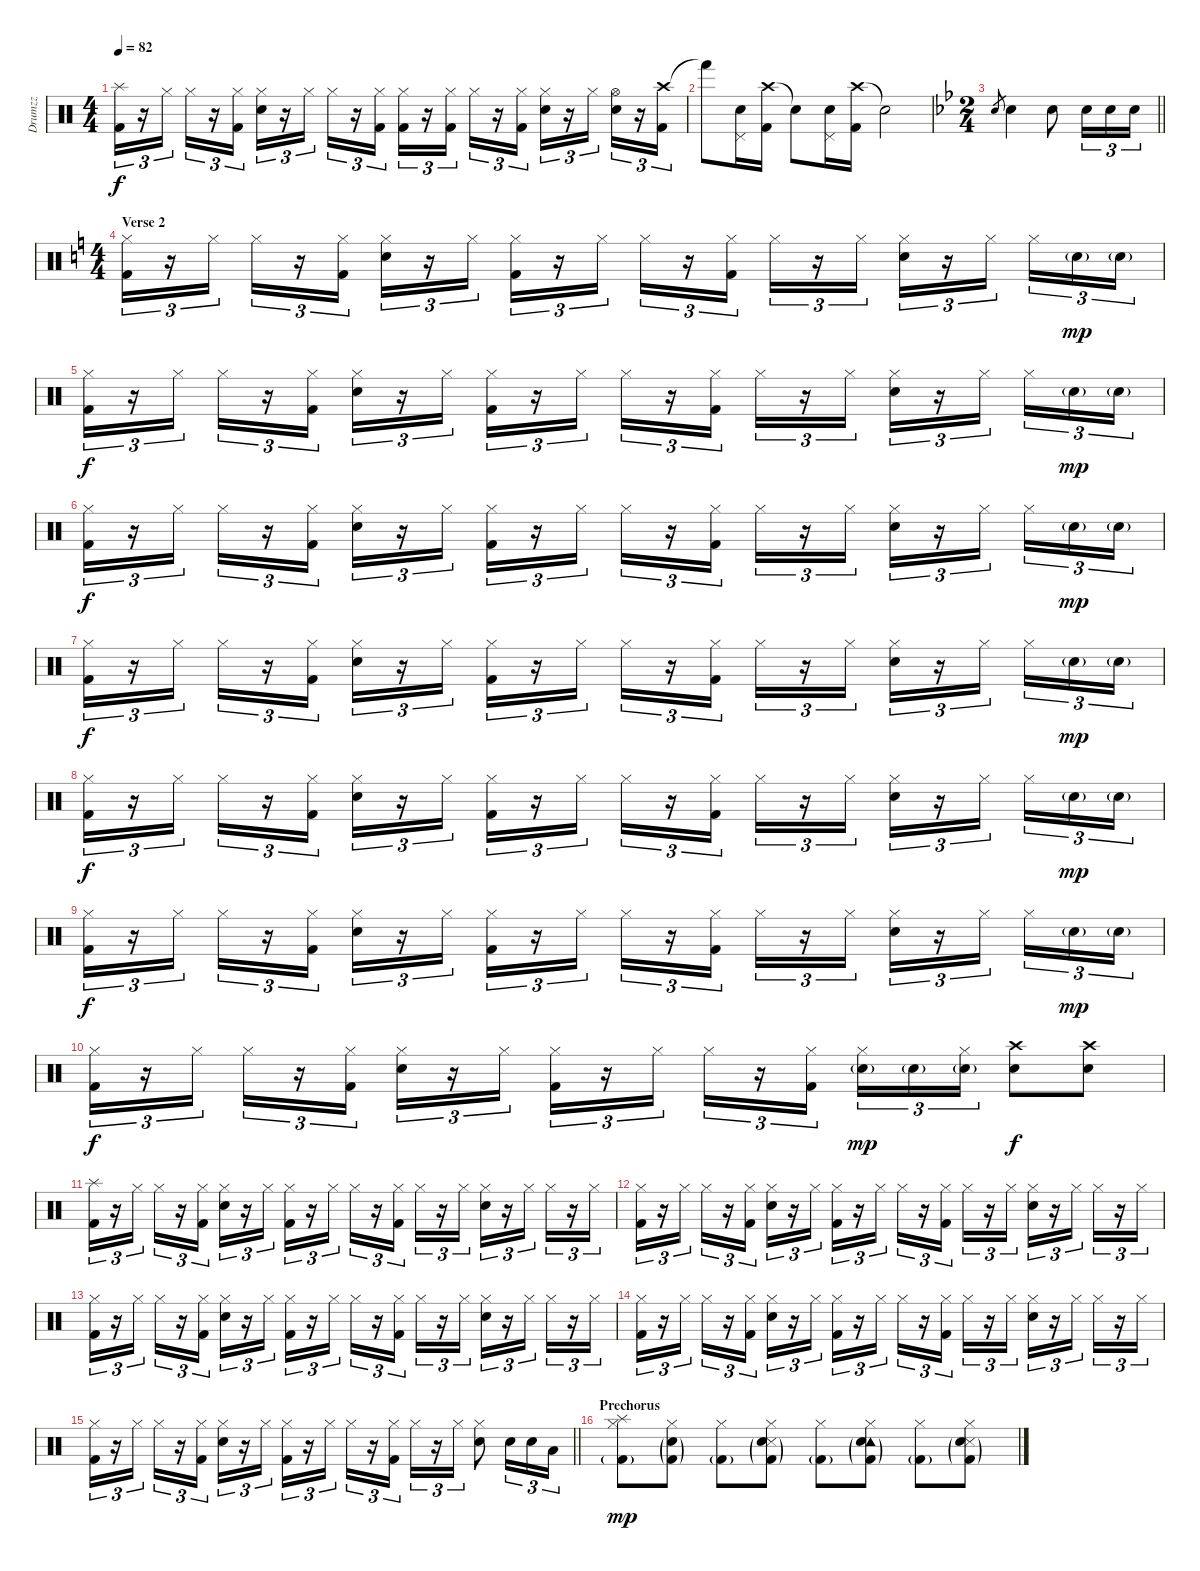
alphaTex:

\track ("Drumzz" "Drumzz") {instrument percussion}
\staff {score}
\articulation defaults
\ts (4 4)
\tempo 82
\clef neutral
\ks c
("Splash (hit)" "Kick (hit) 2").16{tu (3 2) dy f} r.16{tu (3 2)} "Hi-Hat (closed)".16{tu (3 2)} "Hi-Hat (closed)".16{tu (3 2)} r.16{tu (3 2)} ("Hi-Hat (closed)" "Kick (hit) 2").16{tu (3 2)} ("Hi-Hat (closed)" "Snare (hit) 2").16{tu (3 2)} r.16{tu (3 2)} "Hi-Hat (closed)".16{tu (3 2)} "Hi-Hat (closed)".16{tu (3 2)} r.16{tu (3 2)} ("Hi-Hat (closed)" "Kick (hit) 2").16{tu (3 2)} ("Hi-Hat (closed)" "Kick (hit) 2").16{tu (3 2)} r.16{tu (3 2)} ("Hi-Hat (closed)" "Kick (hit) 2").16{tu (3 2)} "Hi-Hat (closed)".16{tu (3 2)} r.16{tu (3 2)} ("Hi-Hat (closed)" "Kick (hit) 2").16{tu (3 2)} ("Hi-Hat (closed)" "Snare (hit) 2").16{tu (3 2)} r.16{tu (3 2)} "Hi-Hat (closed)".16{tu (3 2)} ("Hi-Hat (open)" "Snare (hit) 2").16{tu (3 2)} r.16{tu (3 2)} ("Crash high (hit)" "Kick (hit) 2").16{tu (3 2)} |
"Hand (hit)"{t}.8 ("Pedal Hi-Hat (hit)" "Snare (hit) 2").16 ("Crash high (hit)" "Kick (hit) 2").16 "Snare (hit)"{t}.8 ("Pedal Hi-Hat (hit)" "Snare (hit) 2").16 ("Crash high (hit)" "Kick (hit) 2").16 "Snare (hit)"{t}.2 |
\ts (2 4)
\barLineRight lightlight
\ks bb "Snare (hit) 2".8{gr} "Snare (hit) 2".4 "Snare (hit) 2".8 "Snare (hit) 2".16{tu (3 2)} "Snare (hit) 2".16{tu (3 2)} "Snare (hit) 2".16{tu (3 2)}
|
\ts (4 4)
\section ("" "Verse 2")
\ks c
("Hi-Hat (closed)" "Kick (hit) 2").16{tu (3 2)} r.16{tu (3 2)} "Hi-Hat (closed)".16{tu (3 2)} "Hi-Hat (closed)".16{tu (3 2)} r.16{tu (3 2)} ("Hi-Hat (closed)" "Kick (hit) 2").16{tu (3 2)} ("Hi-Hat (closed)" "Snare (hit) 2").16{tu (3 2)} r.16{tu (3 2)} "Hi-Hat (closed)".16{tu (3 2)} ("Hi-Hat (closed)" "Kick (hit) 2").16{tu (3 2)} r.16{tu (3 2)} "Hi-Hat (closed)".16{tu (3 2)} "Hi-Hat (closed)".16{tu (3 2)} r.16{tu (3 2)} ("Hi-Hat (closed)" "Kick (hit) 2").16{tu (3 2)} "Hi-Hat (closed)".16{tu (3 2)} r.16{tu (3 2)} "Hi-Hat (closed)".16{tu (3 2)} ("Hi-Hat (closed)" "Snare (hit) 2").16{tu (3 2)} r.16{tu (3 2)} "Hi-Hat (closed)".16{tu (3 2) beam splitsecondary} "Hi-Hat (closed)".16{tu (3 2)} "Snare (hit) 2"{g}.16{tu (3 2) dy mp} "Snare (hit) 2"{g}.16{tu (3 2)} |
("Hi-Hat (closed)" "Kick (hit) 2").16{tu (3 2) dy f} r.16{tu (3 2)} "Hi-Hat (closed)".16{tu (3 2)} "Hi-Hat (closed)".16{tu (3 2)} r.16{tu (3 2)} ("Hi-Hat (closed)" "Kick (hit) 2").16{tu (3 2)} ("Hi-Hat (closed)" "Snare (hit) 2").16{tu (3 2)} r.16{tu (3 2)} "Hi-Hat (closed)".16{tu (3 2)} ("Hi-Hat (closed)" "Kick (hit) 2").16{tu (3 2)} r.16{tu (3 2)} "Hi-Hat (closed)".16{tu (3 2)} "Hi-Hat (closed)".16{tu (3 2)} r.16{tu (3 2)} ("Hi-Hat (closed)" "Kick (hit) 2").16{tu (3 2)} "Hi-Hat (closed)".16{tu (3 2)} r.16{tu (3 2)} "Hi-Hat (closed)".16{tu (3 2)} ("Hi-Hat (closed)" "Snare (hit) 2").16{tu (3 2)} r.16{tu (3 2)} "Hi-Hat (closed)".16{tu (3 2) beam splitsecondary} "Hi-Hat (closed)".16{tu (3 2)} "Snare (hit) 2"{g}.16{tu (3 2) dy mp} "Snare (hit) 2"{g}.16{tu (3 2)} |
("Hi-Hat (closed)" "Kick (hit) 2").16{tu (3 2) dy f} r.16{tu (3 2)} "Hi-Hat (closed)".16{tu (3 2)} "Hi-Hat (closed)".16{tu (3 2)} r.16{tu (3 2)} ("Hi-Hat (closed)" "Kick (hit) 2").16{tu (3 2)} ("Hi-Hat (closed)" "Snare (hit) 2").16{tu (3 2)} r.16{tu (3 2)} "Hi-Hat (closed)".16{tu (3 2)} ("Hi-Hat (closed)" "Kick (hit) 2").16{tu (3 2)} r.16{tu (3 2)} "Hi-Hat (closed)".16{tu (3 2)} "Hi-Hat (closed)".16{tu (3 2)} r.16{tu (3 2)} ("Hi-Hat (closed)" "Kick (hit) 2").16{tu (3 2)} "Hi-Hat (closed)".16{tu (3 2)} r.16{tu (3 2)} "Hi-Hat (closed)".16{tu (3 2)} ("Hi-Hat (closed)" "Snare (hit) 2").16{tu (3 2)} r.16{tu (3 2)} "Hi-Hat (closed)".16{tu (3 2) beam splitsecondary} "Hi-Hat (closed)".16{tu (3 2)} "Snare (hit) 2"{g}.16{tu (3 2) dy mp} "Snare (hit) 2"{g}.16{tu (3 2)} |
("Hi-Hat (closed)" "Kick (hit) 2").16{tu (3 2) dy f} r.16{tu (3 2)} "Hi-Hat (closed)".16{tu (3 2)} "Hi-Hat (closed)".16{tu (3 2)} r.16{tu (3 2)} ("Hi-Hat (closed)" "Kick (hit) 2").16{tu (3 2)} ("Hi-Hat (closed)" "Snare (hit) 2").16{tu (3 2)} r.16{tu (3 2)} "Hi-Hat (closed)".16{tu (3 2)} ("Hi-Hat (closed)" "Kick (hit) 2").16{tu (3 2)} r.16{tu (3 2)} "Hi-Hat (closed)".16{tu (3 2)} "Hi-Hat (closed)".16{tu (3 2)} r.16{tu (3 2)} ("Hi-Hat (closed)" "Kick (hit) 2").16{tu (3 2)} "Hi-Hat (closed)".16{tu (3 2)} r.16{tu (3 2)} "Hi-Hat (closed)".16{tu (3 2)} ("Hi-Hat (closed)" "Snare (hit) 2").16{tu (3 2)} r.16{tu (3 2)} "Hi-Hat (closed)".16{tu (3 2) beam splitsecondary} "Hi-Hat (closed)".16{tu (3 2)} "Snare (hit) 2"{g}.16{tu (3 2) dy mp} "Snare (hit) 2"{g}.16{tu (3 2)} |
("Hi-Hat (closed)" "Kick (hit) 2").16{tu (3 2) dy f} r.16{tu (3 2)} "Hi-Hat (closed)".16{tu (3 2)} "Hi-Hat (closed)".16{tu (3 2)} r.16{tu (3 2)} ("Hi-Hat (closed)" "Kick (hit) 2").16{tu (3 2)} ("Hi-Hat (closed)" "Snare (hit) 2").16{tu (3 2)} r.16{tu (3 2)} "Hi-Hat (closed)".16{tu (3 2)} ("Hi-Hat (closed)" "Kick (hit) 2").16{tu (3 2)} r.16{tu (3 2)} "Hi-Hat (closed)".16{tu (3 2)} "Hi-Hat (closed)".16{tu (3 2)} r.16{tu (3 2)} ("Hi-Hat (closed)" "Kick (hit) 2").16{tu (3 2)} "Hi-Hat (closed)".16{tu (3 2)} r.16{tu (3 2)} "Hi-Hat (closed)".16{tu (3 2)} ("Hi-Hat (closed)" "Snare (hit) 2").16{tu (3 2)} r.16{tu (3 2)} "Hi-Hat (closed)".16{tu (3 2) beam splitsecondary} "Hi-Hat (closed)".16{tu (3 2)} "Snare (hit) 2"{g}.16{tu (3 2) dy mp} "Snare (hit) 2"{g}.16{tu (3 2)} |
("Hi-Hat (closed)" "Kick (hit) 2").16{tu (3 2) dy f} r.16{tu (3 2)} "Hi-Hat (closed)".16{tu (3 2)} "Hi-Hat (closed)".16{tu (3 2)} r.16{tu (3 2)} ("Hi-Hat (closed)" "Kick (hit) 2").16{tu (3 2)} ("Hi-Hat (closed)" "Snare (hit) 2").16{tu (3 2)} r.16{tu (3 2)} "Hi-Hat (closed)".16{tu (3 2)} ("Hi-Hat (closed)" "Kick (hit) 2").16{tu (3 2)} r.16{tu (3 2)} "Hi-Hat (closed)".16{tu (3 2)} "Hi-Hat (closed)".16{tu (3 2)} r.16{tu (3 2)} ("Hi-Hat (closed)" "Kick (hit) 2").16{tu (3 2)} "Hi-Hat (closed)".16{tu (3 2)} r.16{tu (3 2)} "Hi-Hat (closed)".16{tu (3 2)} ("Hi-Hat (closed)" "Snare (hit) 2").16{tu (3 2)} r.16{tu (3 2)} "Hi-Hat (closed)".16{tu (3 2) beam splitsecondary} "Hi-Hat (closed)".16{tu (3 2)} "Snare (hit) 2"{g}.16{tu (3 2) dy mp} "Snare (hit) 2"{g}.16{tu (3 2)} |
("Hi-Hat (closed)" "Kick (hit) 2").16{tu (3 2) dy f} r.16{tu (3 2)} "Hi-Hat (closed)".16{tu (3 2)} "Hi-Hat (closed)".16{tu (3 2)} r.16{tu (3 2)} ("Hi-Hat (closed)" "Kick (hit) 2").16{tu (3 2)} ("Hi-Hat (closed)" "Snare (hit) 2").16{tu (3 2)} r.16{tu (3 2)} "Hi-Hat (closed)".16{tu (3 2)} ("Hi-Hat (closed)" "Kick (hit) 2").16{tu (3 2)} r.16{tu (3 2)} "Hi-Hat (closed)".16{tu (3 2)} "Hi-Hat (closed)".16{tu (3 2)} r.16{tu (3 2)} ("Hi-Hat (closed)" "Kick (hit) 2").16{tu (3 2) beam splitsecondary} ("Hi-Hat (closed)" "Snare (hit) 2"{g}).16{tu (3 2) dy mp} "Snare (hit) 2"{g}.16{tu (3 2)} ("Hi-Hat (closed)" "Snare (hit) 2"{g}).16{tu (3 2)} ("Crash high (hit)" "Snare (hit) 2").8{dy f} ("Crash high (hit)" "Snare (hit) 2").8 |
("Splash (hit)" "Kick (hit) 2").16{tu (3 2)} r.16{tu (3 2)} "Hi-Hat (closed)".16{tu (3 2)} "Hi-Hat (closed)".16{tu (3 2)} r.16{tu (3 2)} ("Hi-Hat (closed)" "Kick (hit) 2").16{tu (3 2)} ("Hi-Hat (closed)" "Snare (hit) 2").16{tu (3 2)} r.16{tu (3 2)} "Hi-Hat (closed)".16{tu (3 2)} ("Hi-Hat (closed)" "Kick (hit) 2").16{tu (3 2)} r.16{tu (3 2)} "Hi-Hat (closed)".16{tu (3 2)} "Hi-Hat (closed)".16{tu (3 2)} r.16{tu (3 2)} ("Hi-Hat (closed)" "Kick (hit) 2").16{tu (3 2)} "Hi-Hat (closed)".16{tu (3 2)} r.16{tu (3 2)} "Hi-Hat (closed)".16{tu (3 2)} ("Hi-Hat (closed)" "Snare (hit) 2").16{tu (3 2)} r.16{tu (3 2)} "Hi-Hat (closed)".16{tu (3 2)} "Hi-Hat (closed)".16{tu (3 2)} r.16{tu (3 2)} "Hi-Hat (closed)".16{tu (3 2)} |
("Hi-Hat (closed)" "Kick (hit) 2").16{tu (3 2)} r.16{tu (3 2)} "Hi-Hat (closed)".16{tu (3 2)} "Hi-Hat (closed)".16{tu (3 2)} r.16{tu (3 2)} ("Hi-Hat (closed)" "Kick (hit) 2").16{tu (3 2)} ("Hi-Hat (closed)" "Snare (hit) 2").16{tu (3 2)} r.16{tu (3 2)} "Hi-Hat (closed)".16{tu (3 2)} ("Hi-Hat (closed)" "Kick (hit) 2").16{tu (3 2)} r.16{tu (3 2)} "Hi-Hat (closed)".16{tu (3 2)} "Hi-Hat (closed)".16{tu (3 2)} r.16{tu (3 2)} ("Hi-Hat (closed)" "Kick (hit) 2").16{tu (3 2)} "Hi-Hat (closed)".16{tu (3 2)} r.16{tu (3 2)} "Hi-Hat (closed)".16{tu (3 2)} ("Hi-Hat (closed)" "Snare (hit) 2").16{tu (3 2)} r.16{tu (3 2)} "Hi-Hat (closed)".16{tu (3 2)} "Hi-Hat (closed)".16{tu (3 2)} r.16{tu (3 2)} "Hi-Hat (closed)".16{tu (3 2)} |
("Hi-Hat (closed)" "Kick (hit) 2").16{tu (3 2)} r.16{tu (3 2)} "Hi-Hat (closed)".16{tu (3 2)} "Hi-Hat (closed)".16{tu (3 2)} r.16{tu (3 2)} ("Hi-Hat (closed)" "Kick (hit) 2").16{tu (3 2)} ("Hi-Hat (closed)" "Snare (hit) 2").16{tu (3 2)} r.16{tu (3 2)} "Hi-Hat (closed)".16{tu (3 2)} ("Hi-Hat (closed)" "Kick (hit) 2").16{tu (3 2)} r.16{tu (3 2)} "Hi-Hat (closed)".16{tu (3 2)} "Hi-Hat (closed)".16{tu (3 2)} r.16{tu (3 2)} ("Hi-Hat (closed)" "Kick (hit) 2").16{tu (3 2)} "Hi-Hat (closed)".16{tu (3 2)} r.16{tu (3 2)} "Hi-Hat (closed)".16{tu (3 2)} ("Hi-Hat (closed)" "Snare (hit) 2").16{tu (3 2)} r.16{tu (3 2)} "Hi-Hat (closed)".16{tu (3 2)} "Hi-Hat (closed)".16{tu (3 2)} r.16{tu (3 2)} "Hi-Hat (closed)".16{tu (3 2)} |
("Hi-Hat (closed)" "Kick (hit) 2").16{tu (3 2)} r.16{tu (3 2)} "Hi-Hat (closed)".16{tu (3 2)} "Hi-Hat (closed)".16{tu (3 2)} r.16{tu (3 2)} ("Hi-Hat (closed)" "Kick (hit) 2").16{tu (3 2)} ("Hi-Hat (closed)" "Snare (hit) 2").16{tu (3 2)} r.16{tu (3 2)} "Hi-Hat (closed)".16{tu (3 2)} ("Hi-Hat (closed)" "Kick (hit) 2").16{tu (3 2)} r.16{tu (3 2)} "Hi-Hat (closed)".16{tu (3 2)} "Hi-Hat (closed)".16{tu (3 2)} r.16{tu (3 2)} ("Hi-Hat (closed)" "Kick (hit) 2").16{tu (3 2)} "Hi-Hat (closed)".16{tu (3 2)} r.16{tu (3 2)} "Hi-Hat (closed)".16{tu (3 2)} ("Hi-Hat (closed)" "Snare (hit) 2").16{tu (3 2)} r.16{tu (3 2)} "Hi-Hat (closed)".16{tu (3 2)} "Hi-Hat (closed)".16{tu (3 2)} r.16{tu (3 2)} "Hi-Hat (closed)".16{tu (3 2)} |
\barLineRight lightlight
("Hi-Hat (closed)" "Kick (hit) 2").16{tu (3 2)} r.16{tu (3 2)} "Hi-Hat (closed)".16{tu (3 2)} "Hi-Hat (closed)".16{tu (3 2)} r.16{tu (3 2)} ("Hi-Hat (closed)" "Kick (hit) 2").16{tu (3 2)} ("Hi-Hat (closed)" "Snare (hit) 2").16{tu (3 2)} r.16{tu (3 2)} "Hi-Hat (closed)".16{tu (3 2)} ("Hi-Hat (closed)" "Kick (hit) 2").16{tu (3 2)} r.16{tu (3 2)} "Hi-Hat (closed)".16{tu (3 2)} "Hi-Hat (closed)".16{tu (3 2)} r.16{tu (3 2)} ("Hi-Hat (closed)" "Kick (hit) 2").16{tu (3 2)} "Hi-Hat (closed)".16{tu (3 2)} r.16{tu (3 2)} "Hi-Hat (closed)".16{tu (3 2)} ("Hi-Hat (closed)" "Snare (hit) 2").8 "Snare (hit) 2".16{tu (3 2)} "Snare (hit) 2".16{tu (3 2)} "Low Tom (hit)".16{tu (3 2)} |
\section ("" "Prechorus")
("Splash (hit)" "Hi-Hat (closed)" "Kick (hit) 2"{g}).8{dy mp} ("Hi-Hat (closed)" "Snare (hit) 2"{g} "Kick (hit) 2"{g}).8 ("Hi-Hat (closed)" "Kick (hit) 2"{g}).8 ("Snare (side stick) 3" "Hi-Hat (closed)" "Snare (hit) 2"{g} "Kick (hit) 2"{g}).8 ("Hi-Hat (closed)" "Kick (hit) 2"{g}).8 ("Tambourine (hit)" "Hi-Hat (closed)" "Snare (hit) 2"{g} "Kick (hit) 2"{g}).8 ("Hi-Hat (closed)" "Kick (hit) 2"{g}).8 ("Snare (side stick) 3" "Hi-Hat (closed)" "Snare (hit) 2"{g} "Kick (hit) 2"{g}).8
